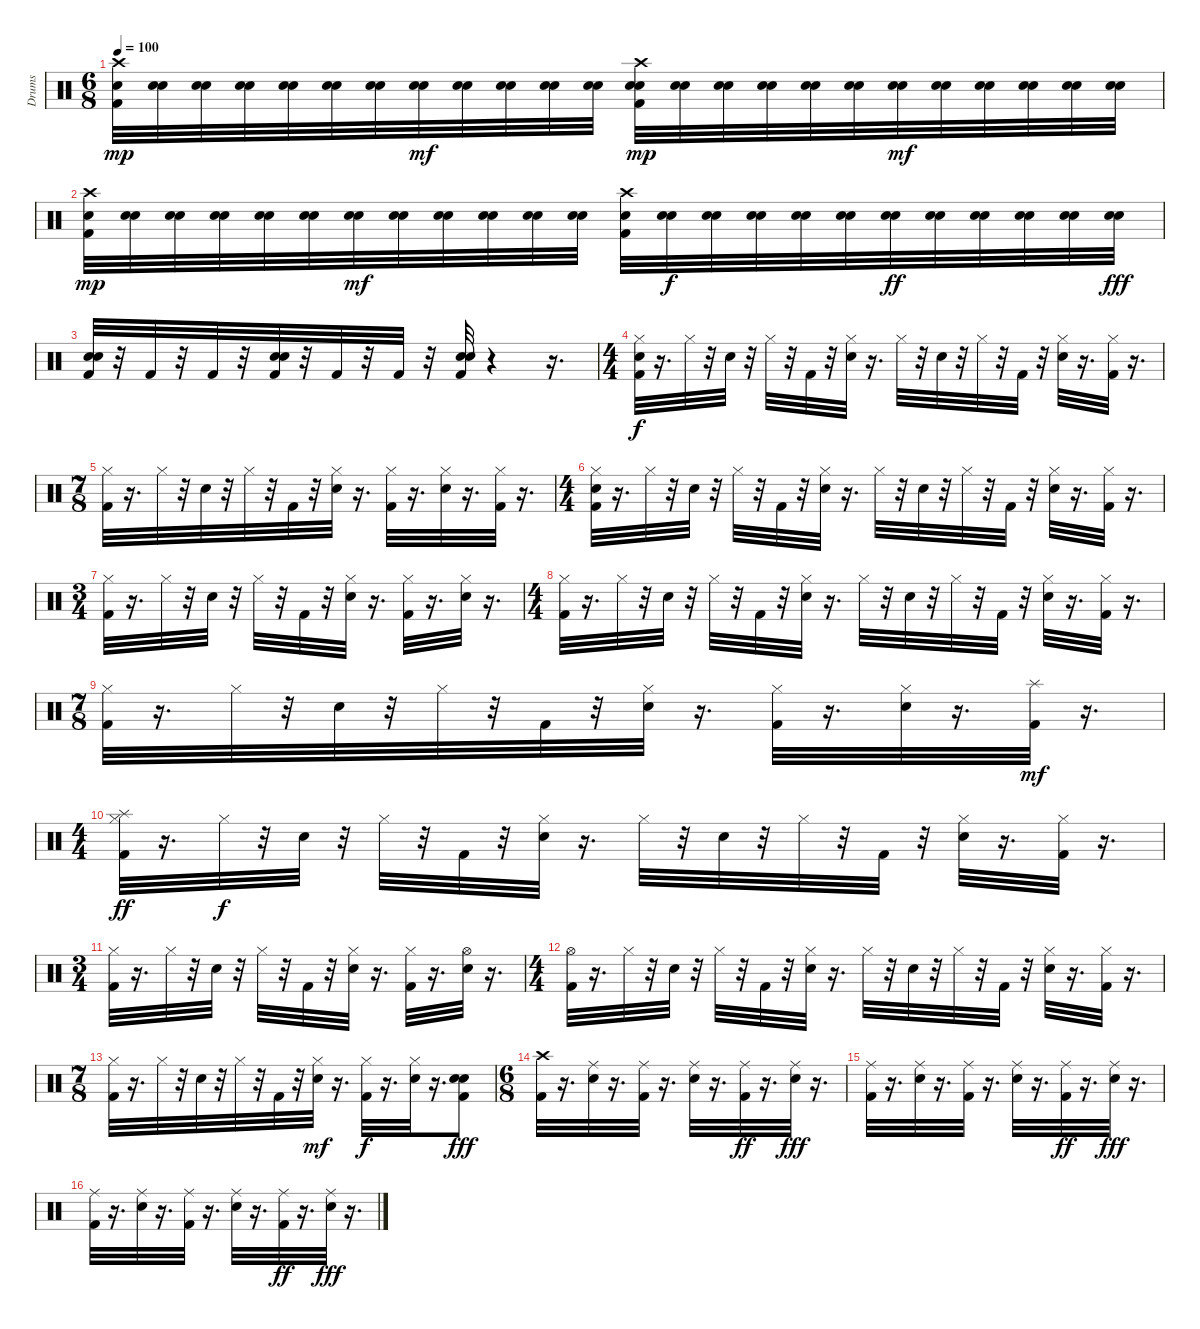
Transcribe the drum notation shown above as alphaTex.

\track ("Drums               " "Drums     ") {instrument percussion}
\staff {score}
\articulation defaults
\ts (6 8)
\tempo 100
\clef neutral
\ks c
("Crash high (hit)" "Kick (hit) 2" "Electric Snare (hit)").32{dy mp} ("Electric Snare (hit)" "Electric Snare (hit)").32 ("Electric Snare (hit)" "Electric Snare (hit)").32 ("Electric Snare (hit)" "Electric Snare (hit)").32 ("Electric Snare (hit)" "Electric Snare (hit)").32 ("Electric Snare (hit)" "Electric Snare (hit)").32 ("Electric Snare (hit)" "Electric Snare (hit)").32 ("Electric Snare (hit)" "Electric Snare (hit)").32{dy mf} ("Electric Snare (hit)" "Electric Snare (hit)").32 ("Electric Snare (hit)" "Electric Snare (hit)").32 ("Electric Snare (hit)" "Electric Snare (hit)").32 ("Electric Snare (hit)" "Electric Snare (hit)").32 ("Kick (hit) 2" "Electric Snare (hit)" "Crash high (hit)" "Electric Snare (hit)").32{dy mp} ("Electric Snare (hit)" "Electric Snare (hit)").32 ("Electric Snare (hit)" "Electric Snare (hit)").32 ("Electric Snare (hit)" "Electric Snare (hit)").32 ("Electric Snare (hit)" "Electric Snare (hit)").32 ("Electric Snare (hit)" "Electric Snare (hit)").32 ("Electric Snare (hit)" "Electric Snare (hit)").32{dy mf} ("Electric Snare (hit)" "Electric Snare (hit)").32 ("Electric Snare (hit)" "Electric Snare (hit)").32 ("Electric Snare (hit)" "Electric Snare (hit)").32 ("Electric Snare (hit)" "Electric Snare (hit)").32 ("Electric Snare (hit)" "Electric Snare (hit)").32 |
("Crash high (hit)" "Kick (hit) 2" "Electric Snare (hit)").32{dy mp} ("Electric Snare (hit)" "Electric Snare (hit)").32 ("Electric Snare (hit)" "Electric Snare (hit)").32 ("Electric Snare (hit)" "Electric Snare (hit)").32 ("Electric Snare (hit)" "Electric Snare (hit)").32 ("Electric Snare (hit)" "Electric Snare (hit)").32 ("Electric Snare (hit)" "Electric Snare (hit)").32{dy mf} ("Electric Snare (hit)" "Electric Snare (hit)").32 ("Electric Snare (hit)" "Electric Snare (hit)").32 ("Electric Snare (hit)" "Electric Snare (hit)").32 ("Electric Snare (hit)" "Electric Snare (hit)").32 ("Electric Snare (hit)" "Electric Snare (hit)").32 ("Crash high (hit)" "Kick (hit) 2" "Electric Snare (hit)").32 ("Electric Snare (hit)" "Electric Snare (hit)").32{dy f} ("Electric Snare (hit)" "Electric Snare (hit)").32 ("Electric Snare (hit)" "Electric Snare (hit)").32 ("Electric Snare (hit)" "Electric Snare (hit)").32 ("Electric Snare (hit)" "Electric Snare (hit)").32 ("Electric Snare (hit)" "Electric Snare (hit)").32{dy ff} ("Electric Snare (hit)" "Electric Snare (hit)").32 ("Electric Snare (hit)" "Electric Snare (hit)").32 ("Electric Snare (hit)" "Electric Snare (hit)").32 ("Electric Snare (hit)" "Electric Snare (hit)").32 ("Electric Snare (hit)" "Electric Snare (hit)").32{dy fff} |
("Kick (hit) 2" "Snare (hit) 2" "Electric Snare (hit)").32 r.32 "Kick (hit) 2".32 r.32 "Kick (hit) 2".32 r.32 ("Kick (hit) 2" "Snare (hit) 2" "Electric Snare (hit)").32 r.32 "Kick (hit) 2".32 r.32 "Kick (hit) 2".32 r.32 ("Kick (hit) 2" "Snare (hit) 2" "Electric Snare (hit)").32 r.4 r.16{d} |
\ts (4 4)
("Hi-Hat (closed)" "Electric Snare (hit)" "Kick (hit) 2").32{dy f} r.16{d} "Hi-Hat (closed)".32 r.32 "Electric Snare (hit)".32 r.32 "Hi-Hat (closed)".32 r.32 "Kick (hit) 2".32 r.32 ("Hi-Hat (closed)" "Electric Snare (hit)").32 r.16{d} "Hi-Hat (closed)".32 r.32 "Electric Snare (hit)".32 r.32 "Hi-Hat (closed)".32 r.32 "Kick (hit) 2".32 r.32 ("Hi-Hat (closed)" "Electric Snare (hit)").32 r.16{d} ("Hi-Hat (closed)" "Kick (hit) 2").32 r.16{d} |
\ts (7 8)
("Hi-Hat (closed)" "Kick (hit) 2").32 r.16{d} "Hi-Hat (closed)".32 r.32 "Electric Snare (hit)".32 r.32 "Hi-Hat (closed)".32 r.32 "Kick (hit) 2".32 r.32 ("Hi-Hat (closed)" "Electric Snare (hit)").32 r.16{d} ("Hi-Hat (closed)" "Kick (hit) 2").32 r.16{d} ("Hi-Hat (closed)" "Electric Snare (hit)").32 r.16{d} ("Kick (hit) 2" "Hi-Hat (closed)").32 r.16{d} |
\ts (4 4)
("Hi-Hat (closed)" "Electric Snare (hit)" "Kick (hit) 2").32 r.16{d} "Hi-Hat (closed)".32 r.32 "Electric Snare (hit)".32 r.32 "Hi-Hat (closed)".32 r.32 "Kick (hit) 2".32 r.32 ("Hi-Hat (closed)" "Electric Snare (hit)").32 r.16{d} "Hi-Hat (closed)".32 r.32 "Electric Snare (hit)".32 r.32 "Hi-Hat (closed)".32 r.32 "Kick (hit) 2".32 r.32 ("Hi-Hat (closed)" "Electric Snare (hit)").32 r.16{d} ("Hi-Hat (closed)" "Kick (hit) 2").32 r.16{d} |
\ts (3 4)
("Hi-Hat (closed)" "Kick (hit) 2").32 r.16{d} "Hi-Hat (closed)".32 r.32 "Electric Snare (hit)".32 r.32 "Hi-Hat (closed)".32 r.32 "Kick (hit) 2".32 r.32 ("Hi-Hat (closed)" "Electric Snare (hit)").32 r.16{d} ("Hi-Hat (closed)" "Kick (hit) 2").32 r.16{d} ("Hi-Hat (closed)" "Electric Snare (hit)").32 r.16{d} |
\ts (4 4)
("Hi-Hat (closed)" "Kick (hit) 2").32 r.16{d} "Hi-Hat (closed)".32 r.32 "Electric Snare (hit)".32 r.32 "Hi-Hat (closed)".32 r.32 "Kick (hit) 2".32 r.32 ("Hi-Hat (closed)" "Electric Snare (hit)").32 r.16{d} "Hi-Hat (closed)".32 r.32 "Electric Snare (hit)".32 r.32 "Hi-Hat (closed)".32 r.32 "Kick (hit) 2".32 r.32 ("Hi-Hat (closed)" "Electric Snare (hit)").32 r.16{d} ("Hi-Hat (closed)" "Kick (hit) 2").32 r.16{d} |
\ts (7 8)
("Hi-Hat (closed)" "Kick (hit) 2").32 r.16{d} "Hi-Hat (closed)".32 r.32 "Electric Snare (hit)".32 r.32 "Hi-Hat (closed)".32 r.32 "Kick (hit) 2".32 r.32 ("Hi-Hat (closed)" "Electric Snare (hit)").32 r.16{d} ("Hi-Hat (closed)" "Kick (hit) 2").32 r.16{d} ("Hi-Hat (closed)" "Electric Snare (hit)").32 r.16{d} ("Splash (hit)" "Kick (hit) 2").32{dy mf} r.16{d} |
\ts (4 4)
("Splash (hit)" "Hi-Hat (closed)" "Kick (hit) 2").32{dy ff} r.16{d} "Hi-Hat (closed)".32{dy f} r.32 "Electric Snare (hit)".32 r.32 "Hi-Hat (closed)".32 r.32 "Kick (hit) 2".32 r.32 ("Hi-Hat (closed)" "Electric Snare (hit)").32 r.16{d} "Hi-Hat (closed)".32 r.32 "Electric Snare (hit)".32 r.32 "Hi-Hat (closed)".32 r.32 "Kick (hit) 2".32 r.32 ("Hi-Hat (closed)" "Electric Snare (hit)").32 r.16{d} ("Hi-Hat (closed)" "Kick (hit) 2").32 r.16{d} |
\ts (3 4)
("Hi-Hat (closed)" "Kick (hit) 2").32 r.16{d} "Hi-Hat (closed)".32 r.32 "Electric Snare (hit)".32 r.32 "Hi-Hat (closed)".32 r.32 "Kick (hit) 2".32 r.32 ("Hi-Hat (closed)" "Electric Snare (hit)").32 r.16{d} ("Hi-Hat (closed)" "Kick (hit) 2").32 r.16{d} ("Hi-Hat (open)" "Electric Snare (hit)").32 r.16{d} |
\ts (4 4)
("Hi-Hat (open)" "Kick (hit) 2").32 r.16{d} "Hi-Hat (closed)".32 r.32 "Electric Snare (hit)".32 r.32 "Hi-Hat (closed)".32 r.32 "Kick (hit) 2".32 r.32 ("Hi-Hat (closed)" "Electric Snare (hit)").32 r.16{d} "Hi-Hat (closed)".32 r.32 "Electric Snare (hit)".32 r.32 "Hi-Hat (closed)".32 r.32 "Kick (hit) 2".32 r.32 ("Hi-Hat (closed)" "Electric Snare (hit)").32 r.16{d} ("Hi-Hat (closed)" "Kick (hit) 2").32 r.16{d} |
\ts (7 8)
("Hi-Hat (closed)" "Kick (hit) 2").32 r.16{d} "Hi-Hat (closed)".32 r.32 "Electric Snare (hit)".32 r.32 "Hi-Hat (closed)".32 r.32 "Kick (hit) 2".32 r.32 ("Hi-Hat (closed)" "Electric Snare (hit)").32{dy mf} r.16{d} ("Hi-Hat (closed)" "Kick (hit) 2").32{dy f} r.16{d} ("Hi-Hat (closed)" "Electric Snare (hit)").32 r.16{d} ("Electric Snare (hit)" "Kick (hit) 2" "Electric Snare (hit)").8{dy fff} |
\ts (6 8)
("Kick (hit) 2" "Crash high (hit)").32 r.16{d} ("Ride (middle)" "Electric Snare (hit)").32 r.16{d} ("Ride (middle)" "Kick (hit) 2").32 r.16{d} ("Ride (middle)" "Electric Snare (hit)").32 r.16{d} ("Kick (hit) 2" "Ride (middle)").32{dy ff} r.16{d} ("Electric Snare (hit)" "Ride (middle)").32{dy fff} r.16{d} |
("Ride (middle)" "Kick (hit) 2").32 r.16{d} ("Ride (middle)" "Electric Snare (hit)").32 r.16{d} ("Ride (middle)" "Kick (hit) 2").32 r.16{d} ("Ride (middle)" "Electric Snare (hit)").32 r.16{d} ("Kick (hit) 2" "Ride (middle)").32{dy ff} r.16{d} ("Electric Snare (hit)" "Ride (middle)").32{dy fff} r.16{d} |
("Ride (middle)" "Kick (hit) 2").32 r.16{d} ("Ride (middle)" "Electric Snare (hit)").32 r.16{d} ("Ride (middle)" "Kick (hit) 2").32 r.16{d} ("Ride (middle)" "Electric Snare (hit)").32 r.16{d} ("Kick (hit) 2" "Ride (middle)").32{dy ff} r.16{d} ("Electric Snare (hit)" "Ride (middle)").32{dy fff} r.16{d}
